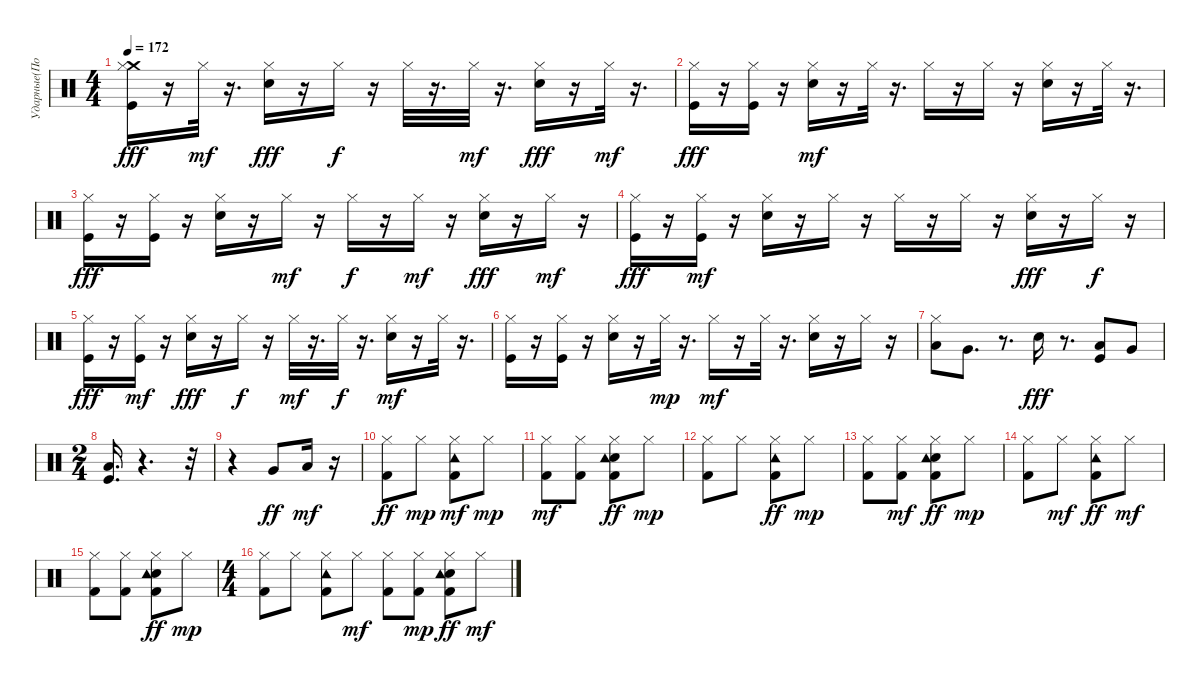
\track ("Ударные(Потапкин)" "Ударные(По") {instrument percussion}
\staff {score}
\articulation defaults
\ts (4 4)
\tempo 172
\clef neutral
\ks c
("Crash medium (hit)" "Kick (hit)" "Hi-Hat (closed)").16{dy fff} r.16 "Hi-Hat (closed)".32{dy mf} r.16{d} ("Snare (hit) 2" "Hi-Hat (closed)").16{dy fff} r.16 "Hi-Hat (closed)".16{dy f} r.16 "Hi-Hat (closed)".32 r.16{d} "Hi-Hat (closed)".32{dy mf} r.16{d} ("Hi-Hat (closed)" "Snare (hit) 2").16{dy fff} r.16 "Hi-Hat (closed)".32{dy mf} r.16{d} |
("Hi-Hat (closed)" "Kick (hit)").16{dy fff} r.16 ("Hi-Hat (closed)" "Kick (hit)").16 r.16 ("Snare (hit) 2" "Hi-Hat (closed)").16{dy mf} r.16 "Hi-Hat (closed)".32 r.16{d} "Hi-Hat (closed)".16 r.16 "Hi-Hat (closed)".16 r.16 ("Snare (hit) 2" "Hi-Hat (closed)").16 r.16 "Hi-Hat (closed)".32 r.16{d} |
("Kick (hit)" "Hi-Hat (closed)").16{dy fff} r.16 ("Hi-Hat (closed)" "Kick (hit)").16 r.16 ("Hi-Hat (closed)" "Snare (hit) 2").16 r.16 "Hi-Hat (closed)".16{dy mf} r.16 "Hi-Hat (closed)".16{dy f} r.16 "Hi-Hat (closed)".16{dy mf} r.16 ("Hi-Hat (closed)" "Snare (hit) 2").16{dy fff} r.16 "Hi-Hat (closed)".16{dy mf} r.16 |
("Hi-Hat (closed)" "Kick (hit)").16{dy fff} r.16 ("Hi-Hat (closed)" "Kick (hit)").16{dy mf} r.16 ("Snare (hit) 2" "Hi-Hat (closed)").16 r.16 "Hi-Hat (closed)".16 r.16 "Hi-Hat (closed)".16 r.16 "Hi-Hat (closed)".16 r.16 ("Snare (hit) 2" "Hi-Hat (closed)").16{dy fff} r.16 "Hi-Hat (closed)".16{dy f} r.16 |
("Kick (hit)" "Hi-Hat (closed)").16{dy fff} r.16 ("Kick (hit)" "Hi-Hat (closed)").16{dy mf} r.16 ("Hi-Hat (closed)" "Snare (hit) 2").16{dy fff} r.16 "Hi-Hat (closed)".16{dy f} r.16 "Hi-Hat (closed)".32{dy mf} r.16{d} "Hi-Hat (closed)".32{dy f} r.16{d} ("Snare (hit) 2" "Hi-Hat (closed)").16{dy mf} r.16 "Hi-Hat (closed)".32 r.16{d} |
("Kick (hit)" "Hi-Hat (closed)").16 r.16 ("Kick (hit)" "Hi-Hat (closed)").16 r.16 ("Snare (hit) 2" "Hi-Hat (closed)").16 r.16 "Hi-Hat (closed)".32{dy mp} r.16{d} "Hi-Hat (closed)".16{dy mf} r.16 "Hi-Hat (closed)".32 r.16{d} ("Snare (hit) 2" "Hi-Hat (closed)").16 r.16 "Hi-Hat (closed)".16 r.16 |
("Low Tom (hit)" "Hi-Hat (closed)").8 "Very Low Tom (hit)".8{d} r.8{d} "Snare (hit) 2".16{dy fff} r.8{d} ("Low Tom (hit)" "Kick (hit)").8 "Very Low Tom (hit)".8 |
\ts (2 4)
("Low Floor Tom (hit)" "Kick (hit)").16{d} r.4{d} r.32 |
r.4 "Very Low Tom (hit)".8{dy ff} "Low Floor Tom (hit)".16{dy mf} r.16 |
("Hi-Hat (closed)" "Kick (hit) 2").8{dy ff} "Hi-Hat (closed)".8{dy mp} ("Hi-Hat (closed)" "Kick (hit) 2" "Tambourine (hit)").8{dy mf} "Hi-Hat (closed)".8{dy mp} |
("Hi-Hat (closed)" "Kick (hit) 2").8{dy mf} ("Hi-Hat (closed)" "Kick (hit) 2").8 ("Snare (hit) 2" "Hi-Hat (closed)" "Kick (hit) 2" "Tambourine (hit)").8{dy ff} "Hi-Hat (closed)".8{dy mp} |
("Hi-Hat (closed)" "Kick (hit) 2").8 "Hi-Hat (closed)".8 ("Hi-Hat (closed)" "Tambourine (hit)" "Kick (hit) 2").8{dy ff} "Hi-Hat (closed)".8{dy mp} |
("Hi-Hat (closed)" "Kick (hit) 2").8 ("Hi-Hat (closed)" "Kick (hit) 2").8{dy mf} ("Snare (hit) 2" "Hi-Hat (closed)" "Kick (hit) 2" "Tambourine (hit)").8{dy ff} "Hi-Hat (closed)".8{dy mp} |
("Hi-Hat (closed)" "Kick (hit) 2").8 "Hi-Hat (closed)".8{dy mf} ("Hi-Hat (closed)" "Tambourine (hit)" "Kick (hit) 2").8{dy ff} "Hi-Hat (closed)".8{dy mf} |
("Hi-Hat (closed)" "Kick (hit) 2").8 ("Hi-Hat (closed)" "Kick (hit) 2").8 ("Snare (hit) 2" "Hi-Hat (closed)" "Tambourine (hit)" "Kick (hit) 2").8{dy ff} "Hi-Hat (closed)".8{dy mp} |
\ts (4 4)
("Hi-Hat (closed)" "Kick (hit) 2").8 "Hi-Hat (closed)".8 ("Tambourine (hit)" "Kick (hit) 2" "Hi-Hat (closed)").8 "Hi-Hat (closed)".8{dy mf} ("Kick (hit) 2" "Hi-Hat (closed)").8 ("Kick (hit) 2" "Hi-Hat (closed)").8{dy mp} ("Snare (hit) 2" "Hi-Hat (closed)" "Tambourine (hit)" "Kick (hit) 2").8{dy ff} "Hi-Hat (closed)".8{dy mf}
